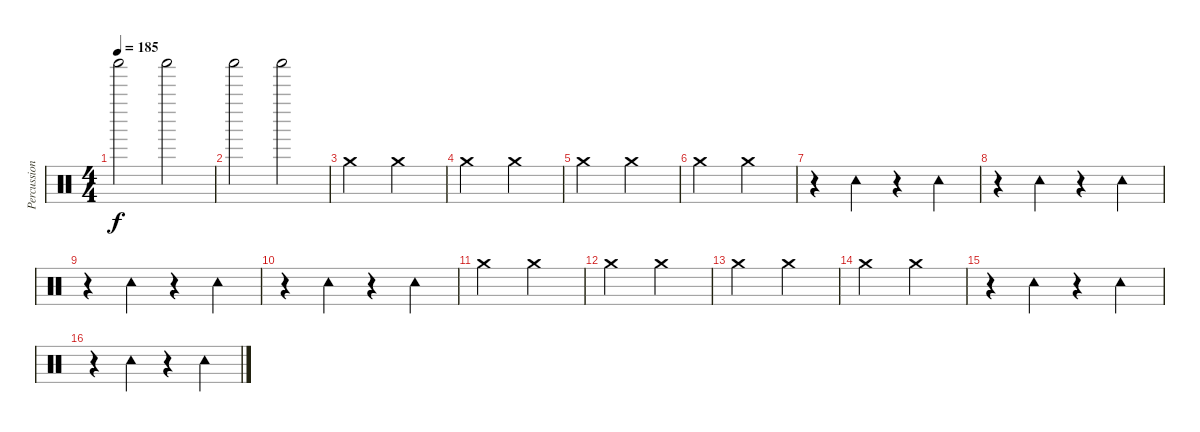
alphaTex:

\track ("Percussion" "Percussion") {instrument percussion}
\staff {score}
\articulation defaults
\ts (4 4)
\tempo 185
\clef neutral
\ks c "Shaker (hit)".2{dy f} "Shaker (hit)".2
|
"Shaker (hit)".2 "Shaker (hit)".2 |
"Crash medium (hit)".2 "Crash medium (hit)".2 |
"Crash medium (hit)".2 "Crash medium (hit)".2 |
"Crash medium (hit)".2 "Crash medium (hit)".2 |
"Crash medium (hit)".2 "Crash medium (hit)".2 |
r.4 "Tambourine (hit)".4 r.4 "Tambourine (hit)".4 |
r.4 "Tambourine (hit)".4 r.4 "Tambourine (hit)".4 |
r.4 "Tambourine (hit)".4 r.4 "Tambourine (hit)".4 |
r.4 "Tambourine (hit)".4 r.4 "Tambourine (hit)".4 |
"Crash medium (hit)".2 "Crash medium (hit)".2 |
"Crash medium (hit)".2 "Crash medium (hit)".2 |
"Crash medium (hit)".2 "Crash medium (hit)".2 |
"Crash medium (hit)".2 "Crash medium (hit)".2 |
r.4 "Tambourine (hit)".4 r.4 "Tambourine (hit)".4 |
r.4 "Tambourine (hit)".4 r.4 "Tambourine (hit)".4
